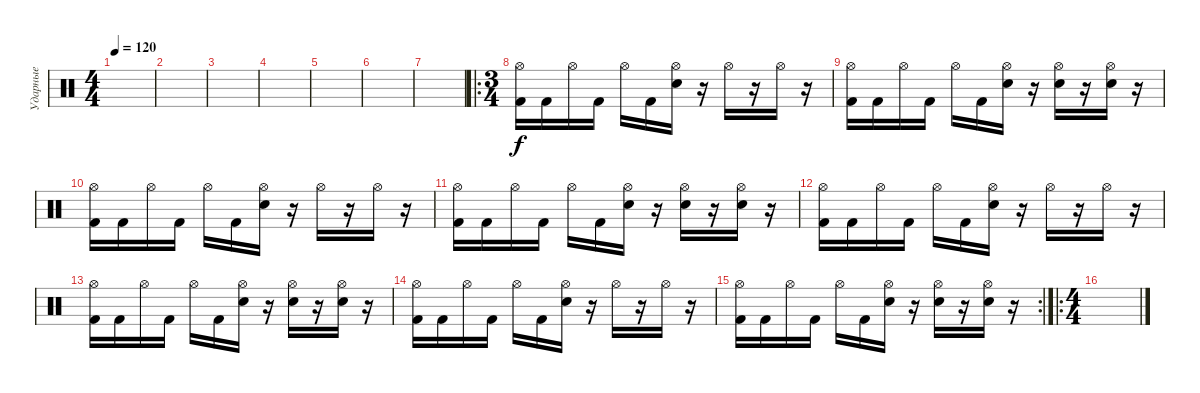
\track ("Ударные" "Ударные") {instrument percussion}
\staff {score}
\articulation defaults
\ts (4 4)
\tempo 120
\clef neutral
\ks c
|
|
|
|
|
|
|
\ro
\ts (3 4)
("Hi-Hat (open)" "Kick (hit) 2").16 "Kick (hit) 2".16 "Hi-Hat (open)".16 "Kick (hit) 2".16 "Hi-Hat (open)".16 "Kick (hit) 2".16 ("Hi-Hat (open)" "Snare (hit) 2").16 r.16 "Hi-Hat (open)".16 r.16 "Hi-Hat (open)".16 r.16 |
("Hi-Hat (open)" "Kick (hit) 2").16 "Kick (hit) 2".16 "Hi-Hat (open)".16 "Kick (hit) 2".16 "Hi-Hat (open)".16 "Kick (hit) 2".16 ("Hi-Hat (open)" "Snare (hit) 2").16 r.16 ("Hi-Hat (open)" "Snare (hit) 2").16 r.16 ("Hi-Hat (open)" "Snare (hit) 2").16 r.16 |
("Hi-Hat (open)" "Kick (hit) 2").16 "Kick (hit) 2".16 "Hi-Hat (open)".16 "Kick (hit) 2".16 "Hi-Hat (open)".16 "Kick (hit) 2".16 ("Hi-Hat (open)" "Snare (hit) 2").16 r.16 "Hi-Hat (open)".16 r.16 "Hi-Hat (open)".16 r.16 |
("Hi-Hat (open)" "Kick (hit) 2").16 "Kick (hit) 2".16 "Hi-Hat (open)".16 "Kick (hit) 2".16 "Hi-Hat (open)".16 "Kick (hit) 2".16 ("Hi-Hat (open)" "Snare (hit) 2").16 r.16 ("Hi-Hat (open)" "Snare (hit) 2").16 r.16 ("Hi-Hat (open)" "Snare (hit) 2").16 r.16 |
("Hi-Hat (open)" "Kick (hit) 2").16 "Kick (hit) 2".16 "Hi-Hat (open)".16 "Kick (hit) 2".16 "Hi-Hat (open)".16 "Kick (hit) 2".16 ("Hi-Hat (open)" "Snare (hit) 2").16 r.16 "Hi-Hat (open)".16 r.16 "Hi-Hat (open)".16 r.16 |
("Hi-Hat (open)" "Kick (hit) 2").16 "Kick (hit) 2".16 "Hi-Hat (open)".16 "Kick (hit) 2".16 "Hi-Hat (open)".16 "Kick (hit) 2".16 ("Hi-Hat (open)" "Snare (hit) 2").16 r.16 ("Hi-Hat (open)" "Snare (hit) 2").16 r.16 ("Hi-Hat (open)" "Snare (hit) 2").16 r.16 |
("Hi-Hat (open)" "Kick (hit) 2").16 "Kick (hit) 2".16 "Hi-Hat (open)".16 "Kick (hit) 2".16 "Hi-Hat (open)".16 "Kick (hit) 2".16 ("Hi-Hat (open)" "Snare (hit) 2").16 r.16 "Hi-Hat (open)".16 r.16 "Hi-Hat (open)".16 r.16 |
\rc 2
("Hi-Hat (open)" "Kick (hit) 2").16 "Kick (hit) 2".16 "Hi-Hat (open)".16 "Kick (hit) 2".16 "Hi-Hat (open)".16 "Kick (hit) 2".16 ("Hi-Hat (open)" "Snare (hit) 2").16 r.16 ("Hi-Hat (open)" "Snare (hit) 2").16 r.16 ("Hi-Hat (open)" "Snare (hit) 2").16 r.16 |
\ro
\ts (4 4)
